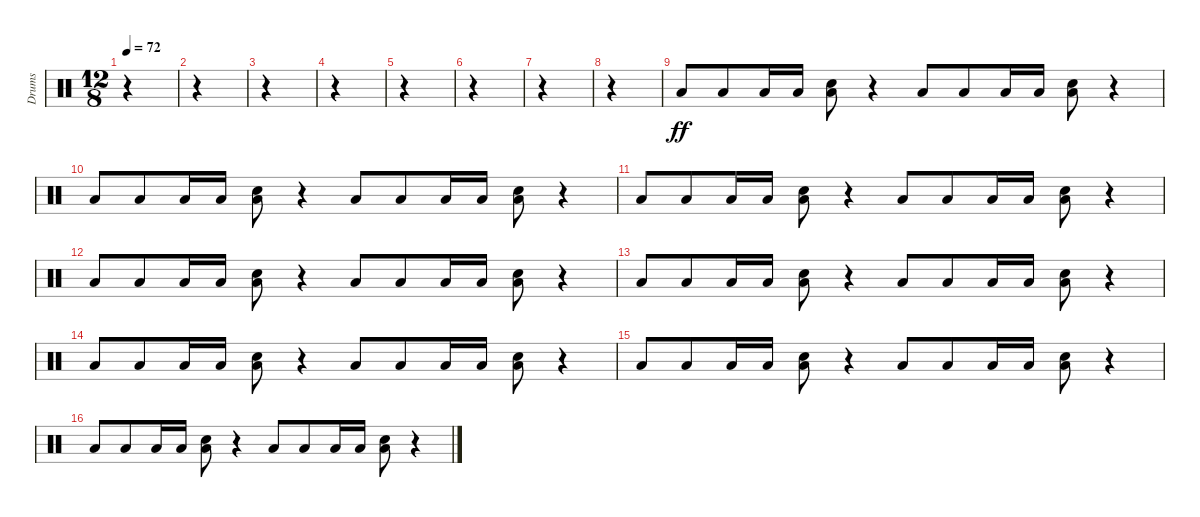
\track ("Drums" "Drums") {instrument percussion}
\staff {score}
\articulation defaults
\ts (12 8)
\tempo 72
\clef neutral
\ks c
r.4{dy ff} |
r.4 |
r.4 |
r.4 |
r.4 |
r.4 |
r.4 |
r.4 |
"Low Floor Tom (hit)".8 "Low Floor Tom (hit)".8 "Low Floor Tom (hit)".16 "Low Floor Tom (hit)".16 ("Electric Snare (hit)" "Low Floor Tom (hit)").8 r.4 "Low Floor Tom (hit)".8 "Low Floor Tom (hit)".8 "Low Floor Tom (hit)".16 "Low Floor Tom (hit)".16 ("Electric Snare (hit)" "Low Floor Tom (hit)").8 r.4 |
"Low Floor Tom (hit)".8 "Low Floor Tom (hit)".8 "Low Floor Tom (hit)".16 "Low Floor Tom (hit)".16 ("Electric Snare (hit)" "Low Floor Tom (hit)").8 r.4 "Low Floor Tom (hit)".8 "Low Floor Tom (hit)".8 "Low Floor Tom (hit)".16 "Low Floor Tom (hit)".16 ("Electric Snare (hit)" "Low Floor Tom (hit)").8 r.4 |
"Low Floor Tom (hit)".8 "Low Floor Tom (hit)".8 "Low Floor Tom (hit)".16 "Low Floor Tom (hit)".16 ("Electric Snare (hit)" "Low Floor Tom (hit)").8 r.4 "Low Floor Tom (hit)".8 "Low Floor Tom (hit)".8 "Low Floor Tom (hit)".16 "Low Floor Tom (hit)".16 ("Electric Snare (hit)" "Low Floor Tom (hit)").8 r.4 |
"Low Floor Tom (hit)".8 "Low Floor Tom (hit)".8 "Low Floor Tom (hit)".16 "Low Floor Tom (hit)".16 ("Electric Snare (hit)" "Low Floor Tom (hit)").8 r.4 "Low Floor Tom (hit)".8 "Low Floor Tom (hit)".8 "Low Floor Tom (hit)".16 "Low Floor Tom (hit)".16 ("Electric Snare (hit)" "Low Floor Tom (hit)").8 r.4 |
"Low Floor Tom (hit)".8 "Low Floor Tom (hit)".8 "Low Floor Tom (hit)".16 "Low Floor Tom (hit)".16 ("Electric Snare (hit)" "Low Floor Tom (hit)").8 r.4 "Low Floor Tom (hit)".8 "Low Floor Tom (hit)".8 "Low Floor Tom (hit)".16 "Low Floor Tom (hit)".16 ("Electric Snare (hit)" "Low Floor Tom (hit)").8 r.4 |
"Low Floor Tom (hit)".8 "Low Floor Tom (hit)".8 "Low Floor Tom (hit)".16 "Low Floor Tom (hit)".16 ("Electric Snare (hit)" "Low Floor Tom (hit)").8 r.4 "Low Floor Tom (hit)".8 "Low Floor Tom (hit)".8 "Low Floor Tom (hit)".16 "Low Floor Tom (hit)".16 ("Electric Snare (hit)" "Low Floor Tom (hit)").8 r.4 |
"Low Floor Tom (hit)".8 "Low Floor Tom (hit)".8 "Low Floor Tom (hit)".16 "Low Floor Tom (hit)".16 ("Electric Snare (hit)" "Low Floor Tom (hit)").8 r.4 "Low Floor Tom (hit)".8 "Low Floor Tom (hit)".8 "Low Floor Tom (hit)".16 "Low Floor Tom (hit)".16 ("Electric Snare (hit)" "Low Floor Tom (hit)").8 r.4 |
"Low Floor Tom (hit)".8 "Low Floor Tom (hit)".8 "Low Floor Tom (hit)".16 "Low Floor Tom (hit)".16 ("Electric Snare (hit)" "Low Floor Tom (hit)").8 r.4 "Low Floor Tom (hit)".8 "Low Floor Tom (hit)".8 "Low Floor Tom (hit)".16 "Low Floor Tom (hit)".16 ("Electric Snare (hit)" "Low Floor Tom (hit)").8 r.4
